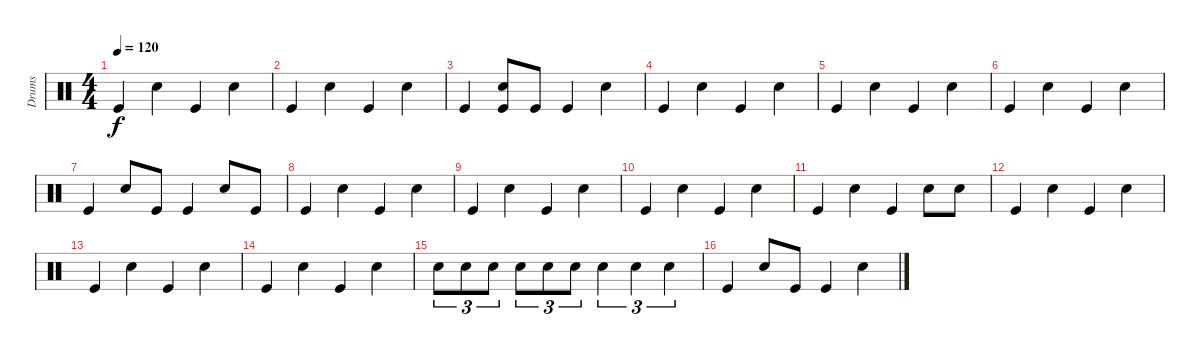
\track ("Drums" "Drums") {instrument percussion}
\staff {score}
\articulation defaults
\ts (4 4)
\tempo 120
\clef neutral
\ks c "Kick (hit)".4{dy f} "Snare (hit) 2".4 "Kick (hit)".4 "Snare (hit) 2".4
|
"Kick (hit)".4 "Snare (hit) 2".4 "Kick (hit)".4 "Snare (hit) 2".4 |
"Kick (hit)".4 ("Snare (hit) 2" "Kick (hit)").8 "Kick (hit)".8 "Kick (hit)".4 "Snare (hit) 2".4 |
"Kick (hit)".4 "Snare (hit) 2".4 "Kick (hit)".4 "Snare (hit) 2".4 |
"Kick (hit)".4 "Snare (hit) 2".4 "Kick (hit)".4 "Snare (hit) 2".4 |
"Kick (hit)".4 "Snare (hit) 2".4 "Kick (hit)".4 "Snare (hit) 2".4 |
"Kick (hit)".4 "Snare (hit) 2".8 "Kick (hit)".8 "Kick (hit)".4 "Snare (hit) 2".8 "Kick (hit)".8 |
"Kick (hit)".4 "Snare (hit) 2".4 "Kick (hit)".4 "Snare (hit) 2".4 |
"Kick (hit)".4 "Snare (hit) 2".4 "Kick (hit)".4 "Snare (hit) 2".4 |
"Kick (hit)".4 "Snare (hit) 2".4 "Kick (hit)".4 "Snare (hit) 2".4 |
"Kick (hit)".4 "Snare (hit) 2".4 "Kick (hit)".4 "Snare (hit) 2".8 "Snare (hit) 2".8 |
"Kick (hit)".4 "Snare (hit) 2".4 "Kick (hit)".4 "Snare (hit) 2".4 |
"Kick (hit)".4 "Snare (hit) 2".4 "Kick (hit)".4 "Snare (hit) 2".4 |
"Kick (hit)".4 "Snare (hit) 2".4 "Kick (hit)".4 "Snare (hit) 2".4 |
"Electric Snare (hit)".8{tu (3 2)} "Electric Snare (hit)".8{tu (3 2)} "Electric Snare (hit)".8{tu (3 2)} "Electric Snare (hit)".8{tu (3 2)} "Electric Snare (hit)".8{tu (3 2)} "Electric Snare (hit)".8{tu (3 2)} "Snare (hit) 2".4{tu (3 2)} "Snare (hit) 2".4{tu (3 2)} "Snare (hit) 2".4{tu (3 2)} |
"Kick (hit)".4 "Snare (hit) 2".8 "Kick (hit)".8 "Kick (hit)".4 "Snare (hit) 2".4
